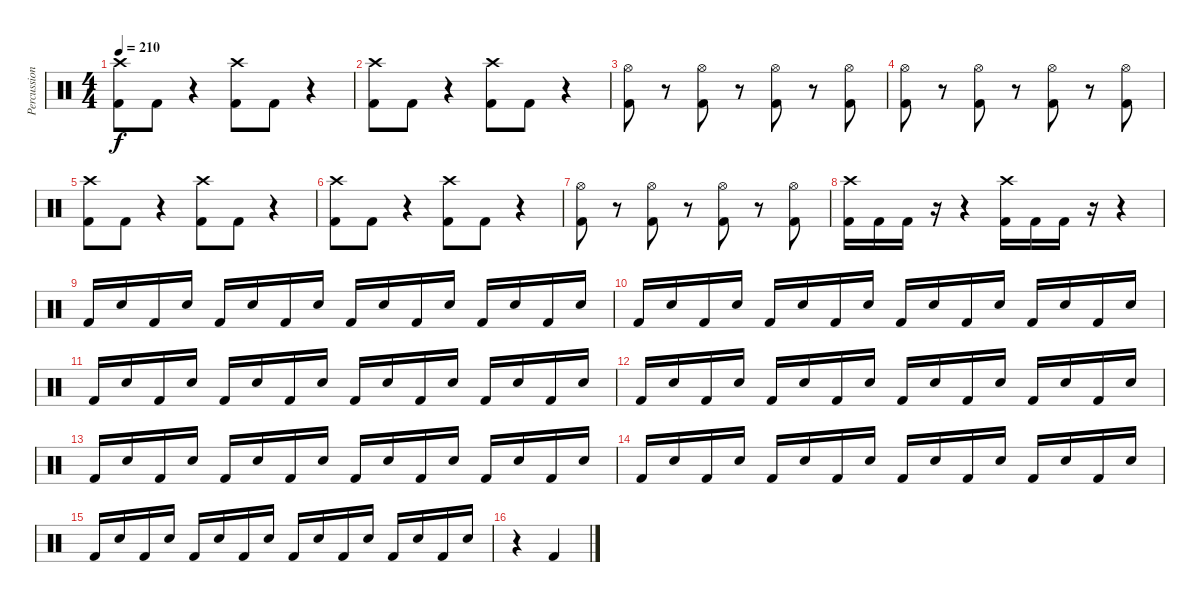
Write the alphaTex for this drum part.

\track ("Percussion" "Percussion") {instrument percussion}
\staff {score}
\articulation defaults
\ts (4 4)
\tempo 210
\clef neutral
\ks c
("Crash high (hit)" "Kick (hit) 2").8{dy f} "Kick (hit) 2".8 r.4 ("Crash high (hit)" "Kick (hit) 2").8 "Kick (hit) 2".8 r.4 |
("Crash high (hit)" "Kick (hit) 2").8 "Kick (hit) 2".8 r.4 ("Crash high (hit)" "Kick (hit) 2").8 "Kick (hit) 2".8 r.4 |
("Hi-Hat (open)" "Kick (hit) 2").8 r.8 ("Hi-Hat (open)" "Kick (hit) 2").8 r.8 ("Hi-Hat (open)" "Kick (hit) 2").8 r.8 ("Hi-Hat (open)" "Kick (hit) 2").8 |
("Hi-Hat (open)" "Kick (hit) 2").8 r.8 ("Hi-Hat (open)" "Kick (hit) 2").8 r.8 ("Hi-Hat (open)" "Kick (hit) 2").8 r.8 ("Hi-Hat (open)" "Kick (hit) 2").8 |
("Crash high (hit)" "Kick (hit) 2").8 "Kick (hit) 2".8 r.4 ("Crash high (hit)" "Kick (hit) 2").8 "Kick (hit) 2".8 r.4 |
("Crash high (hit)" "Kick (hit) 2").8 "Kick (hit) 2".8 r.4 ("Crash high (hit)" "Kick (hit) 2").8 "Kick (hit) 2".8 r.4 |
("Hi-Hat (open)" "Kick (hit) 2").8 r.8 ("Hi-Hat (open)" "Kick (hit) 2").8 r.8 ("Hi-Hat (open)" "Kick (hit) 2").8 r.8 ("Hi-Hat (open)" "Kick (hit) 2").8 |
("Crash high (hit)" "Kick (hit) 2").16 "Kick (hit) 2".16 "Kick (hit) 2".16 r.16 r.4 ("Crash high (hit)" "Kick (hit) 2").16 "Kick (hit) 2".16 "Kick (hit) 2".16 r.16 r.4 |
"Kick (hit) 2".16 "Electric Snare (hit)".16 "Kick (hit) 2".16 "Electric Snare (hit)".16 "Kick (hit) 2".16 "Electric Snare (hit)".16 "Kick (hit) 2".16 "Electric Snare (hit)".16 "Kick (hit) 2".16 "Electric Snare (hit)".16 "Kick (hit) 2".16 "Electric Snare (hit)".16 "Kick (hit) 2".16 "Electric Snare (hit)".16 "Kick (hit) 2".16 "Electric Snare (hit)".16 |
"Kick (hit) 2".16 "Electric Snare (hit)".16 "Kick (hit) 2".16 "Electric Snare (hit)".16 "Kick (hit) 2".16 "Electric Snare (hit)".16 "Kick (hit) 2".16 "Electric Snare (hit)".16 "Kick (hit) 2".16 "Electric Snare (hit)".16 "Kick (hit) 2".16 "Electric Snare (hit)".16 "Kick (hit) 2".16 "Electric Snare (hit)".16 "Kick (hit) 2".16 "Electric Snare (hit)".16 |
"Kick (hit) 2".16 "Electric Snare (hit)".16 "Kick (hit) 2".16 "Electric Snare (hit)".16 "Kick (hit) 2".16 "Electric Snare (hit)".16 "Kick (hit) 2".16 "Electric Snare (hit)".16 "Kick (hit) 2".16 "Electric Snare (hit)".16 "Kick (hit) 2".16 "Electric Snare (hit)".16 "Kick (hit) 2".16 "Electric Snare (hit)".16 "Kick (hit) 2".16 "Electric Snare (hit)".16 |
"Kick (hit) 2".16 "Electric Snare (hit)".16 "Kick (hit) 2".16 "Electric Snare (hit)".16 "Kick (hit) 2".16 "Electric Snare (hit)".16 "Kick (hit) 2".16 "Electric Snare (hit)".16 "Kick (hit) 2".16 "Electric Snare (hit)".16 "Kick (hit) 2".16 "Electric Snare (hit)".16 "Kick (hit) 2".16 "Electric Snare (hit)".16 "Kick (hit) 2".16 "Electric Snare (hit)".16 |
"Kick (hit) 2".16 "Electric Snare (hit)".16 "Kick (hit) 2".16 "Electric Snare (hit)".16 "Kick (hit) 2".16 "Electric Snare (hit)".16 "Kick (hit) 2".16 "Electric Snare (hit)".16 "Kick (hit) 2".16 "Electric Snare (hit)".16 "Kick (hit) 2".16 "Electric Snare (hit)".16 "Kick (hit) 2".16 "Electric Snare (hit)".16 "Kick (hit) 2".16 "Electric Snare (hit)".16 |
"Kick (hit) 2".16 "Electric Snare (hit)".16 "Kick (hit) 2".16 "Electric Snare (hit)".16 "Kick (hit) 2".16 "Electric Snare (hit)".16 "Kick (hit) 2".16 "Electric Snare (hit)".16 "Kick (hit) 2".16 "Electric Snare (hit)".16 "Kick (hit) 2".16 "Electric Snare (hit)".16 "Kick (hit) 2".16 "Electric Snare (hit)".16 "Kick (hit) 2".16 "Electric Snare (hit)".16 |
"Kick (hit) 2".16 "Electric Snare (hit)".16 "Kick (hit) 2".16 "Electric Snare (hit)".16 "Kick (hit) 2".16 "Electric Snare (hit)".16 "Kick (hit) 2".16 "Electric Snare (hit)".16 "Kick (hit) 2".16 "Electric Snare (hit)".16 "Kick (hit) 2".16 "Electric Snare (hit)".16 "Kick (hit) 2".16 "Electric Snare (hit)".16 "Kick (hit) 2".16 "Electric Snare (hit)".16 |
r.4 "Kick (hit) 2".4
